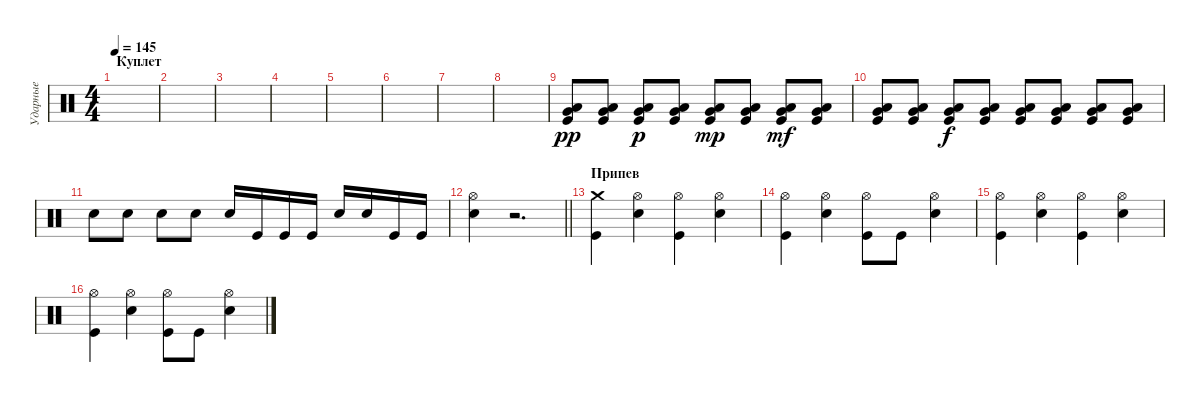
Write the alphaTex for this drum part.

\track ("Ударные" "Ударные") {instrument percussion}
\staff {score}
\articulation defaults
\ts (4 4)
\section ("" "Куплет")
\tempo 145
\clef neutral
\ks c
|
|
|
|
|
|
|
|
("Kick (hit)" "Very Low Tom (hit)" "Low Tom (hit)").8{dy pp} ("Kick (hit)" "Very Low Tom (hit)" "Low Tom (hit)").8 ("Kick (hit)" "Very Low Tom (hit)" "Low Tom (hit)").8{dy p} ("Kick (hit)" "Very Low Tom (hit)" "Low Tom (hit)").8 ("Kick (hit)" "Very Low Tom (hit)" "Low Tom (hit)").8{dy mp} ("Kick (hit)" "Very Low Tom (hit)" "Low Tom (hit)").8 ("Kick (hit)" "Very Low Tom (hit)" "Low Tom (hit)").8{dy mf} ("Kick (hit)" "Very Low Tom (hit)" "Low Tom (hit)").8 |
("Kick (hit)" "Very Low Tom (hit)" "Low Tom (hit)").8 ("Kick (hit)" "Very Low Tom (hit)" "Low Tom (hit)").8 ("Kick (hit)" "Very Low Tom (hit)" "Low Tom (hit)").8{dy f} ("Kick (hit)" "Very Low Tom (hit)" "Low Tom (hit)").8 ("Kick (hit)" "Very Low Tom (hit)" "Low Tom (hit)").8 ("Kick (hit)" "Very Low Tom (hit)" "Low Tom (hit)").8 ("Kick (hit)" "Very Low Tom (hit)" "Low Tom (hit)").8 ("Kick (hit)" "Very Low Tom (hit)" "Low Tom (hit)").8 |
"Snare (hit) 2".8 "Snare (hit) 2".8 "Snare (hit) 2".8 "Snare (hit) 2".8 "Snare (hit) 2".16 "Kick (hit)".16 "Kick (hit)".16 "Kick (hit)".16 "Snare (hit) 2".16 "Snare (hit) 2".16 "Kick (hit)".16 "Kick (hit)".16 |
\barLineRight lightlight
("Snare (hit) 2" "Hi-Hat (open)").4 r.2{d} |
\section ("" "Припев")
("Kick (hit)" "Crash medium (hit)").4 ("Snare (hit) 2" "Hi-Hat (open)").4 ("Kick (hit)" "Hi-Hat (open)").4 ("Snare (hit) 2" "Hi-Hat (open)").4 |
("Kick (hit)" "Hi-Hat (open)").4 ("Snare (hit) 2" "Hi-Hat (open)").4 ("Kick (hit)" "Hi-Hat (open)").8 "Kick (hit)".8 ("Snare (hit) 2" "Hi-Hat (open)").4 |
("Kick (hit)" "Hi-Hat (open)").4 ("Snare (hit) 2" "Hi-Hat (open)").4 ("Kick (hit)" "Hi-Hat (open)").4 ("Snare (hit) 2" "Hi-Hat (open)").4 |
("Kick (hit)" "Hi-Hat (open)").4 ("Snare (hit) 2" "Hi-Hat (open)").4 ("Kick (hit)" "Hi-Hat (open)").8 "Kick (hit)".8 ("Snare (hit) 2" "Hi-Hat (open)").4
